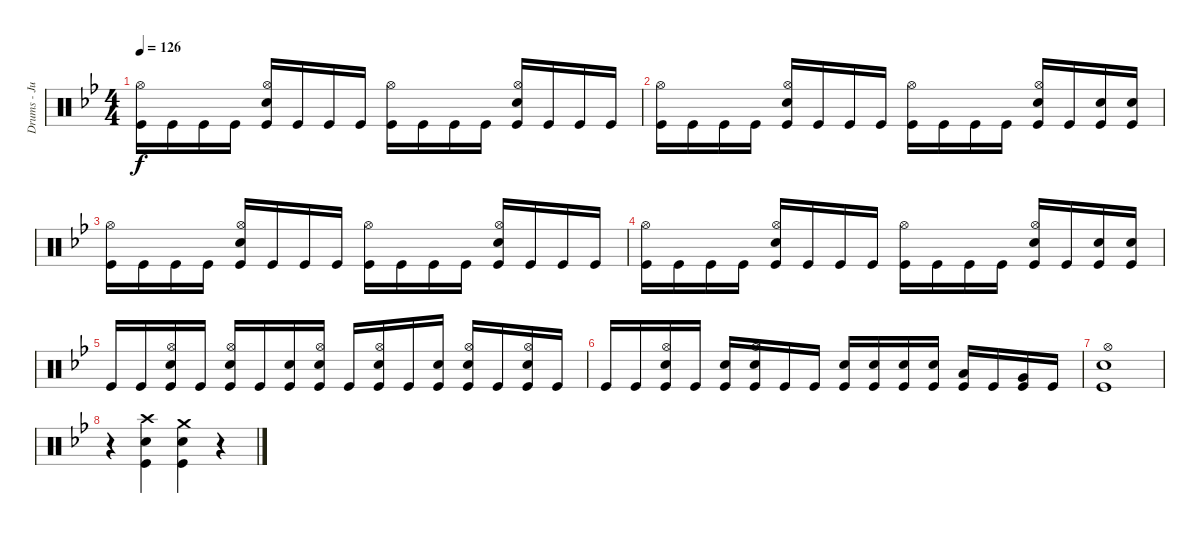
\track ("Drums - Jukka" "Drums - Ju") {instrument percussion}
\staff {score}
\articulation defaults
\ts (4 4)
\tempo 126
\clef neutral
\ks gminor
("Kick (hit)" "Hi-Hat (open)").16{dy f} "Kick (hit)".16 "Kick (hit)".16 "Kick (hit)".16 ("Kick (hit)" "Snare (hit) 2" "Hi-Hat (open)").16 "Kick (hit)".16 "Kick (hit)".16 "Kick (hit)".16 ("Kick (hit)" "Hi-Hat (open)").16 "Kick (hit)".16 "Kick (hit)".16 "Kick (hit)".16 ("Kick (hit)" "Snare (hit) 2" "Hi-Hat (open)").16 "Kick (hit)".16 "Kick (hit)".16 "Kick (hit)".16 |
("Kick (hit)" "Hi-Hat (open)").16 "Kick (hit)".16 "Kick (hit)".16 "Kick (hit)".16 ("Kick (hit)" "Snare (hit) 2" "Hi-Hat (open)").16 "Kick (hit)".16 "Kick (hit)".16 "Kick (hit)".16 ("Kick (hit)" "Hi-Hat (open)").16 "Kick (hit)".16 "Kick (hit)".16 "Kick (hit)".16 ("Kick (hit)" "Snare (hit) 2" "Hi-Hat (open)").16 "Kick (hit)".16 ("Kick (hit)" "Snare (hit) 2").16 ("Kick (hit)" "Snare (hit) 2").16 |
("Kick (hit)" "Hi-Hat (open)").16 "Kick (hit)".16 "Kick (hit)".16 "Kick (hit)".16 ("Kick (hit)" "Snare (hit) 2" "Hi-Hat (open)").16 "Kick (hit)".16 "Kick (hit)".16 "Kick (hit)".16 ("Kick (hit)" "Hi-Hat (open)").16 "Kick (hit)".16 "Kick (hit)".16 "Kick (hit)".16 ("Kick (hit)" "Snare (hit) 2" "Hi-Hat (open)").16 "Kick (hit)".16 "Kick (hit)".16 "Kick (hit)".16 |
("Kick (hit)" "Hi-Hat (open)").16 "Kick (hit)".16 "Kick (hit)".16 "Kick (hit)".16 ("Kick (hit)" "Snare (hit) 2" "Hi-Hat (open)").16 "Kick (hit)".16 "Kick (hit)".16 "Kick (hit)".16 ("Kick (hit)" "Hi-Hat (open)").16 "Kick (hit)".16 "Kick (hit)".16 "Kick (hit)".16 ("Kick (hit)" "Snare (hit) 2" "Hi-Hat (open)").16 "Kick (hit)".16 ("Kick (hit)" "Snare (hit) 2").16 ("Kick (hit)" "Snare (hit) 2").16 |
"Kick (hit)".16 "Kick (hit)".16 ("Kick (hit)" "Snare (hit) 2" "Hi-Hat (open)").16 "Kick (hit)".16 ("Kick (hit)" "Snare (hit) 2" "Hi-Hat (open)").16 "Kick (hit)".16 ("Snare (hit) 2" "Kick (hit)").16 ("Kick (hit)" "Snare (hit) 2" "Hi-Hat (open)").16 "Kick (hit)".16 ("Kick (hit)" "Snare (hit) 2" "Hi-Hat (open)").16 "Kick (hit)".16 ("Kick (hit)" "Snare (hit) 2").16 ("Kick (hit)" "Snare (hit) 2" "Hi-Hat (open)").16 "Kick (hit)".16 ("Kick (hit)" "Snare (hit) 2" "Hi-Hat (open)").16 "Kick (hit)".16 |
"Kick (hit)".16 "Kick (hit)".16 ("Kick (hit)" "Snare (hit) 2" "Hi-Hat (open)").16 "Kick (hit)".16 ("Kick (hit)" "Snare (hit) 2").16 ("Kick (hit)" "Snare (hit) 2" "Hi-Hat (open)").16 "Kick (hit)".16 "Kick (hit)".16 ("Kick (hit)" "Snare (hit) 2").16 ("Kick (hit)" "Snare (hit) 2").16 ("Kick (hit)" "Snare (hit) 2").16 ("Kick (hit)" "Snare (hit) 2").16 ("Kick (hit)" "Low Tom (hit)").16 "Kick (hit)".16 ("Kick (hit)" "Very Low Tom (hit)").16 "Kick (hit)".16 |
("Hi-Hat (open)" "Snare (hit) 2" "Kick (hit)").1 |
r.4 ("Kick (hit)" "Snare (hit) 2" "Crash high (hit)").4 ("Kick (hit)" "Snare (hit) 2" "Crash medium (hit)").4 r.4
